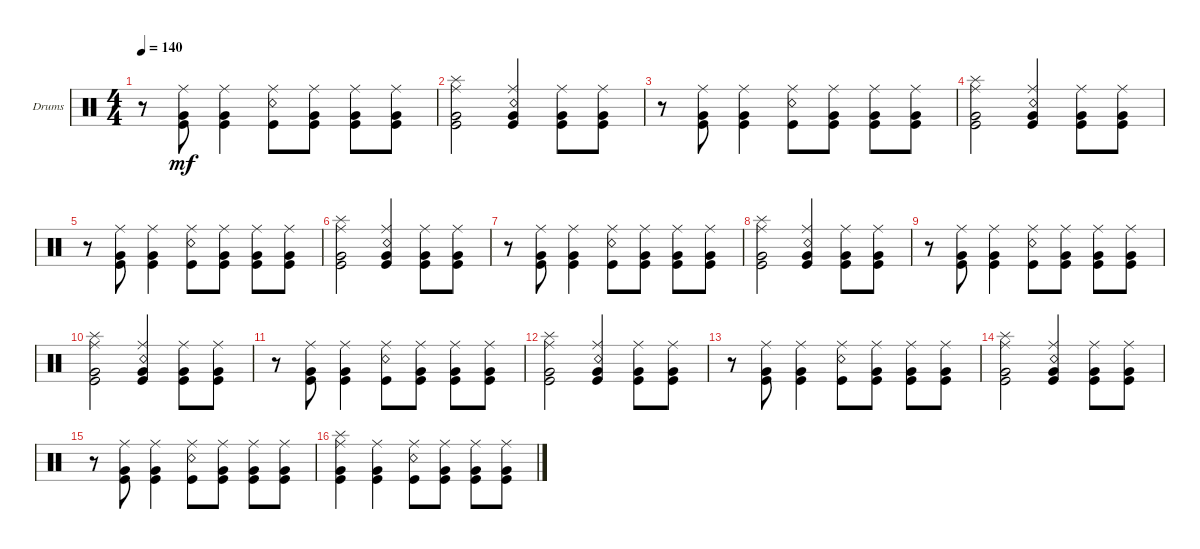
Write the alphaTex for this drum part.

\defaultSystemsLayout 4
\bracketExtendMode groupsimilarinstruments
\firstSystemTrackNameOrientation horizontal
\otherSystemsTrackNameOrientation horizontal
\track ("Drumkit" "Drums") {instrument percussion}
\staff {score}
\articulation defaults
\ts (4 4)
\tempo 140
\clef neutral
\ks c
r.8{dy mf} ("Very Low Tom (hit)" "Kick (hit)" "Ride (middle)").8 ("Very Low Tom (hit)" "Kick (hit)" "Ride (middle)").4 ("Snare (rim shot)" "Kick (hit)" "Ride (middle)").8 ("Very Low Tom (hit)" "Kick (hit)" "Ride (middle)").8 ("Very Low Tom (hit)" "Kick (hit)" "Ride (middle)").8 ("Very Low Tom (hit)" "Kick (hit)" "Ride (middle)").8 |
("Splash (hit)" "Very Low Tom (hit)" "Kick (hit)" "Ride (middle)").2 ("Snare (rim shot)" "Very Low Tom (hit)" "Kick (hit)" "Ride (middle)").4 ("Very Low Tom (hit)" "Kick (hit)" "Ride (middle)").8 ("Very Low Tom (hit)" "Kick (hit)" "Ride (middle)").8 |
r.8 ("Very Low Tom (hit)" "Kick (hit)" "Ride (middle)").8 ("Very Low Tom (hit)" "Kick (hit)" "Ride (middle)").4 ("Snare (rim shot)" "Kick (hit)" "Ride (middle)").8 ("Very Low Tom (hit)" "Kick (hit)" "Ride (middle)").8 ("Very Low Tom (hit)" "Kick (hit)" "Ride (middle)").8 ("Very Low Tom (hit)" "Kick (hit)" "Ride (middle)").8 |
("Splash (hit)" "Very Low Tom (hit)" "Kick (hit)" "Ride (middle)").2 ("Snare (rim shot)" "Very Low Tom (hit)" "Kick (hit)" "Ride (middle)").4 ("Very Low Tom (hit)" "Kick (hit)" "Ride (middle)").8 ("Very Low Tom (hit)" "Kick (hit)" "Ride (middle)").8 |
r.8 ("Very Low Tom (hit)" "Kick (hit)" "Ride (middle)").8 ("Very Low Tom (hit)" "Kick (hit)" "Ride (middle)").4 ("Snare (rim shot)" "Kick (hit)" "Ride (middle)").8 ("Very Low Tom (hit)" "Kick (hit)" "Ride (middle)").8 ("Very Low Tom (hit)" "Kick (hit)" "Ride (middle)").8 ("Very Low Tom (hit)" "Kick (hit)" "Ride (middle)").8 |
("Splash (hit)" "Very Low Tom (hit)" "Kick (hit)" "Ride (middle)").2 ("Snare (rim shot)" "Very Low Tom (hit)" "Kick (hit)" "Ride (middle)").4 ("Very Low Tom (hit)" "Kick (hit)" "Ride (middle)").8 ("Very Low Tom (hit)" "Kick (hit)" "Ride (middle)").8 |
r.8 ("Very Low Tom (hit)" "Kick (hit)" "Ride (middle)").8 ("Very Low Tom (hit)" "Kick (hit)" "Ride (middle)").4 ("Snare (rim shot)" "Kick (hit)" "Ride (middle)").8 ("Very Low Tom (hit)" "Kick (hit)" "Ride (middle)").8 ("Very Low Tom (hit)" "Kick (hit)" "Ride (middle)").8 ("Very Low Tom (hit)" "Kick (hit)" "Ride (middle)").8 |
("Splash (hit)" "Very Low Tom (hit)" "Kick (hit)" "Ride (middle)").2 ("Snare (rim shot)" "Very Low Tom (hit)" "Kick (hit)" "Ride (middle)").4 ("Very Low Tom (hit)" "Kick (hit)" "Ride (middle)").8 ("Very Low Tom (hit)" "Kick (hit)" "Ride (middle)").8 |
r.8 ("Very Low Tom (hit)" "Kick (hit)" "Ride (middle)").8 ("Very Low Tom (hit)" "Kick (hit)" "Ride (middle)").4 ("Snare (rim shot)" "Kick (hit)" "Ride (middle)").8 ("Very Low Tom (hit)" "Kick (hit)" "Ride (middle)").8 ("Very Low Tom (hit)" "Kick (hit)" "Ride (middle)").8 ("Very Low Tom (hit)" "Kick (hit)" "Ride (middle)").8 |
("Splash (hit)" "Very Low Tom (hit)" "Kick (hit)" "Ride (middle)").2 ("Snare (rim shot)" "Very Low Tom (hit)" "Kick (hit)" "Ride (middle)").4 ("Very Low Tom (hit)" "Kick (hit)" "Ride (middle)").8 ("Very Low Tom (hit)" "Kick (hit)" "Ride (middle)").8 |
r.8 ("Very Low Tom (hit)" "Kick (hit)" "Ride (middle)").8 ("Very Low Tom (hit)" "Kick (hit)" "Ride (middle)").4 ("Snare (rim shot)" "Kick (hit)" "Ride (middle)").8 ("Very Low Tom (hit)" "Kick (hit)" "Ride (middle)").8 ("Very Low Tom (hit)" "Kick (hit)" "Ride (middle)").8 ("Very Low Tom (hit)" "Kick (hit)" "Ride (middle)").8 |
("Splash (hit)" "Very Low Tom (hit)" "Kick (hit)" "Ride (middle)").2 ("Snare (rim shot)" "Very Low Tom (hit)" "Kick (hit)" "Ride (middle)").4 ("Very Low Tom (hit)" "Kick (hit)" "Ride (middle)").8 ("Very Low Tom (hit)" "Kick (hit)" "Ride (middle)").8 |
r.8 ("Very Low Tom (hit)" "Kick (hit)" "Ride (middle)").8 ("Very Low Tom (hit)" "Kick (hit)" "Ride (middle)").4 ("Snare (rim shot)" "Kick (hit)" "Ride (middle)").8 ("Very Low Tom (hit)" "Kick (hit)" "Ride (middle)").8 ("Very Low Tom (hit)" "Kick (hit)" "Ride (middle)").8 ("Very Low Tom (hit)" "Kick (hit)" "Ride (middle)").8 |
("Splash (hit)" "Very Low Tom (hit)" "Kick (hit)" "Ride (middle)").2 ("Snare (rim shot)" "Very Low Tom (hit)" "Kick (hit)" "Ride (middle)").4 ("Very Low Tom (hit)" "Kick (hit)" "Ride (middle)").8 ("Very Low Tom (hit)" "Kick (hit)" "Ride (middle)").8 |
r.8 ("Very Low Tom (hit)" "Kick (hit)" "Ride (middle)").8 ("Very Low Tom (hit)" "Kick (hit)" "Ride (middle)").4 ("Snare (rim shot)" "Kick (hit)" "Ride (middle)").8 ("Very Low Tom (hit)" "Kick (hit)" "Ride (middle)").8 ("Very Low Tom (hit)" "Kick (hit)" "Ride (middle)").8 ("Very Low Tom (hit)" "Kick (hit)" "Ride (middle)").8 |
("Splash (hit)" "Very Low Tom (hit)" "Ride (middle)" "Kick (hit)").4 ("Very Low Tom (hit)" "Ride (middle)" "Kick (hit)").4 ("Snare (rim shot)" "Ride (middle)" "Kick (hit)").8 ("Very Low Tom (hit)" "Ride (middle)" "Kick (hit)").8 ("Very Low Tom (hit)" "Ride (middle)" "Kick (hit)").8 ("Very Low Tom (hit)" "Ride (middle)" "Kick (hit)").8
